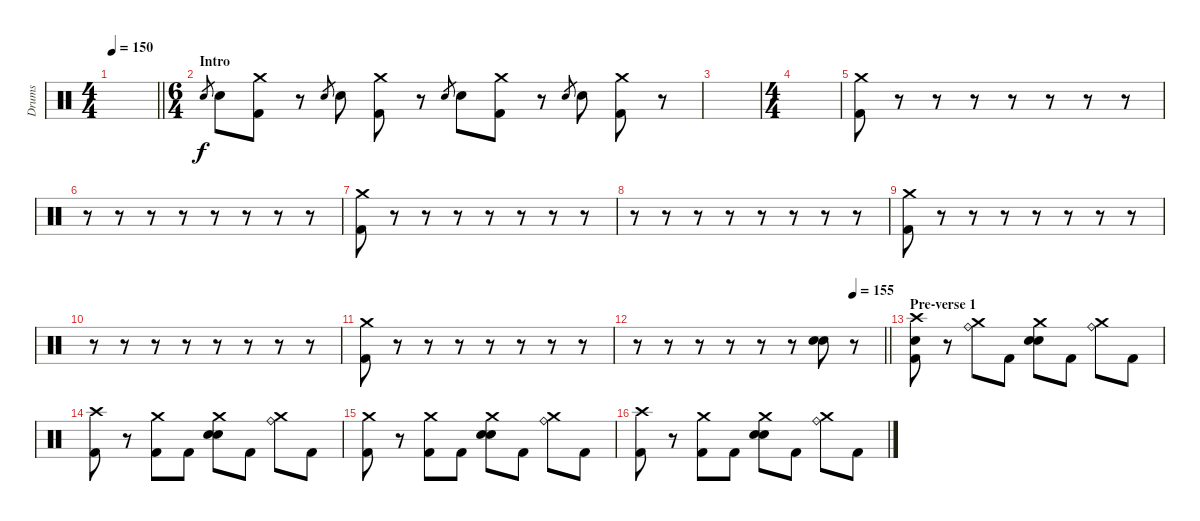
\track ("Drums" "Drums") {instrument percussion}
\staff {score}
\articulation defaults
\ts (4 4)
\tempo 150
\clef neutral
\barLineRight lightlight
\ks c
|
\ts (6 4)
\section ("" "Intro")
"Snare (hit) 2".8{gr} "Electric Snare (hit)".8 ("Crash medium (hit)" "Kick (hit) 2").8 r.8 "Snare (hit) 2".8{gr} "Electric Snare (hit)".8 ("Crash medium (hit)" "Kick (hit) 2").8 r.8 "Snare (hit) 2".8{gr} "Electric Snare (hit)".8 ("Crash medium (hit)" "Kick (hit) 2").8 r.8 "Snare (hit) 2".8{gr} "Electric Snare (hit)".8 ("Crash medium (hit)" "Kick (hit) 2").8 r.8 |
|
\ts (4 4)
|
("Crash medium (hit)" "Kick (hit) 2").8 r.8 r.8 r.8 r.8 r.8 r.8 r.8 |
r.8 r.8 r.8 r.8 r.8 r.8 r.8 r.8 |
("Crash medium (hit)" "Kick (hit) 2").8 r.8 r.8 r.8 r.8 r.8 r.8 r.8 |
r.8 r.8 r.8 r.8 r.8 r.8 r.8 r.8 |
("Crash medium (hit)" "Kick (hit) 2").8 r.8 r.8 r.8 r.8 r.8 r.8 r.8 |
r.8 r.8 r.8 r.8 r.8 r.8 r.8 r.8 |
("Crash medium (hit)" "Kick (hit) 2").8 r.8 r.8 r.8 r.8 r.8 r.8 r.8 |
\tempo (155 0.875)
\barLineRight lightlight
r.8 r.8 r.8 r.8 r.8 r.8 ("Snare (hit) 2" "Electric Snare (hit)").8 r.8 |
\section ("" "Pre-verse 1")
("Crash high (hit)" "Snare (hit) 2" "Kick (hit) 2").8 r.8 ("Crash medium (hit)" "Ride (bell)").8 "Kick (hit) 2".8 ("Crash medium (hit)" "Snare (hit) 2" "Electric Snare (hit)").8 "Kick (hit) 2".8 ("Crash medium (hit)" "Ride (bell)").8 "Kick (hit) 2".8 |
("Crash high (hit)" "Kick (hit) 2").8 r.8 ("Crash medium (hit)" "Kick (hit) 2").8 "Kick (hit) 2".8 ("Crash medium (hit)" "Snare (hit) 2" "Electric Snare (hit)").8 "Kick (hit) 2".8 ("Crash medium (hit)" "Ride (bell)").8 "Kick (hit) 2".8 |
("Crash medium (hit)" "Kick (hit) 2").8 r.8 ("Crash medium (hit)" "Kick (hit) 2").8 "Kick (hit) 2".8 ("Crash medium (hit)" "Snare (hit) 2" "Electric Snare (hit)").8 "Kick (hit) 2".8 ("Crash medium (hit)" "Ride (bell)").8 "Kick (hit) 2".8 |
("Crash high (hit)" "Kick (hit) 2").8 r.8 ("Crash medium (hit)" "Kick (hit) 2").8 "Kick (hit) 2".8 ("Crash medium (hit)" "Snare (hit) 2" "Electric Snare (hit)").8 "Kick (hit) 2".8 ("Crash medium (hit)" "Ride (bell)").8 "Kick (hit) 2".8
